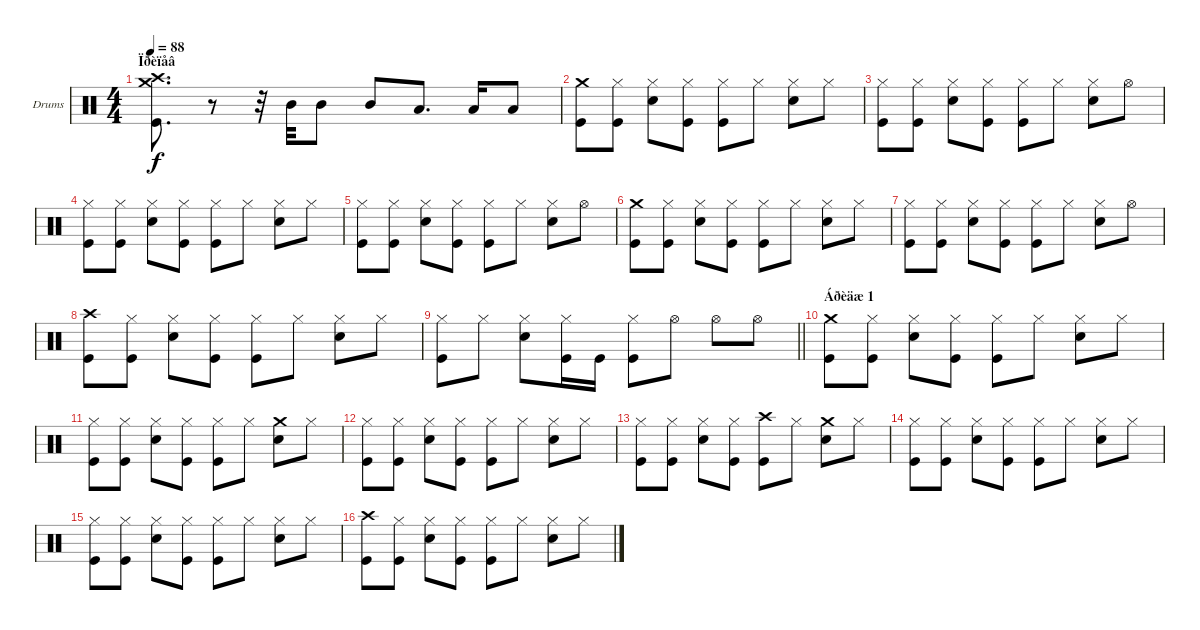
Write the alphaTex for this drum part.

\bracketExtendMode groupsimilarinstruments
\firstSystemTrackNameOrientation horizontal
\otherSystemsTrackNameOrientation horizontal
\track ("Drumkit" "Drums") {instrument percussion}
\staff {score}
\articulation defaults
\ts (4 4)
\section ("" "Ïðèïåâ")
\tempo 88
\clef neutral
\ks c
("Kick (hit)" "Crash high (hit)" "Crash medium (hit)").8{d dy f} r.8 r.32 "Mid Tom (hit)".32 "Mid Tom (hit)".8 "Mid Tom (hit)".8 "Low Tom (hit)".8{d} "Low Tom (hit)".16 "Low Tom (hit)".8 |
("Kick (hit)" "Crash medium (hit)").8 ("Kick (hit)" "Hi-Hat (closed)").8 ("Snare (hit) 2" "Hi-Hat (closed)").8 ("Kick (hit)" "Hi-Hat (closed)").8 ("Kick (hit)" "Hi-Hat (closed)").8 "Hi-Hat (closed)".8 ("Snare (hit) 2" "Hi-Hat (closed)").8 "Hi-Hat (closed)".8 |
("Kick (hit)" "Hi-Hat (closed)").8 ("Kick (hit)" "Hi-Hat (closed)").8 ("Snare (hit) 2" "Hi-Hat (closed)").8 ("Kick (hit)" "Hi-Hat (closed)").8 ("Kick (hit)" "Hi-Hat (closed)").8 "Hi-Hat (closed)".8 ("Snare (hit) 2" "Hi-Hat (closed)").8 "Hi-Hat (open)".8 |
("Kick (hit)" "Hi-Hat (closed)").8 ("Kick (hit)" "Hi-Hat (closed)").8 ("Snare (hit) 2" "Hi-Hat (closed)").8 ("Kick (hit)" "Hi-Hat (closed)").8 ("Kick (hit)" "Hi-Hat (closed)").8 "Hi-Hat (closed)".8 ("Snare (hit) 2" "Hi-Hat (closed)").8 "Hi-Hat (closed)".8 |
("Kick (hit)" "Hi-Hat (closed)").8 ("Kick (hit)" "Hi-Hat (closed)").8 ("Snare (hit) 2" "Hi-Hat (closed)").8 ("Kick (hit)" "Hi-Hat (closed)").8 ("Kick (hit)" "Hi-Hat (closed)").8 "Hi-Hat (closed)".8 ("Snare (hit) 2" "Hi-Hat (closed)").8 "Hi-Hat (open)".8 |
("Kick (hit)" "Crash medium (hit)").8 ("Kick (hit)" "Hi-Hat (closed)").8 ("Snare (hit) 2" "Hi-Hat (closed)").8 ("Kick (hit)" "Hi-Hat (closed)").8 ("Kick (hit)" "Hi-Hat (closed)").8 "Hi-Hat (closed)".8 ("Snare (hit) 2" "Hi-Hat (closed)").8 "Hi-Hat (closed)".8 |
("Kick (hit)" "Hi-Hat (closed)").8 ("Kick (hit)" "Hi-Hat (closed)").8 ("Snare (hit) 2" "Hi-Hat (closed)").8 ("Kick (hit)" "Hi-Hat (closed)").8 ("Kick (hit)" "Hi-Hat (closed)").8 "Hi-Hat (closed)".8 ("Snare (hit) 2" "Hi-Hat (closed)").8 "Hi-Hat (open)".8 |
("Kick (hit)" "Crash high (hit)").8 ("Kick (hit)" "Hi-Hat (closed)").8 ("Snare (hit) 2" "Hi-Hat (closed)").8 ("Kick (hit)" "Hi-Hat (closed)").8 ("Kick (hit)" "Hi-Hat (closed)").8 "Hi-Hat (closed)".8 ("Snare (hit) 2" "Hi-Hat (closed)").8 "Hi-Hat (closed)".8 |
\barLineRight lightlight
("Kick (hit)" "Hi-Hat (closed)").8 "Hi-Hat (closed)".8 ("Snare (hit) 2" "Hi-Hat (closed)").8 ("Kick (hit)" "Hi-Hat (closed)").16 "Kick (hit)".16 ("Kick (hit)" "Hi-Hat (closed)").8 "Hi-Hat (open)".8 "Hi-Hat (open)".8 "Hi-Hat (open)".8 |
\section ("" "Áðèäæ 1")
("Kick (hit)" "Crash medium (hit)").8 ("Kick (hit)" "Hi-Hat (closed)").8 ("Snare (hit) 2" "Hi-Hat (closed)").8 ("Kick (hit)" "Hi-Hat (closed)").8 ("Kick (hit)" "Hi-Hat (closed)").8 "Hi-Hat (closed)".8 ("Snare (hit) 2" "Hi-Hat (closed)").8 "Hi-Hat (closed)".8 |
("Kick (hit)" "Hi-Hat (closed)").8 ("Kick (hit)" "Hi-Hat (closed)").8 ("Snare (hit) 2" "Hi-Hat (closed)").8 ("Kick (hit)" "Hi-Hat (closed)").8 ("Kick (hit)" "Hi-Hat (closed)").8 "Hi-Hat (closed)".8 ("Snare (hit) 2" "Crash medium (hit)").8 "Hi-Hat (closed)".8 |
("Kick (hit)" "Hi-Hat (closed)").8 ("Kick (hit)" "Hi-Hat (closed)").8 ("Snare (hit) 2" "Hi-Hat (closed)").8 ("Kick (hit)" "Hi-Hat (closed)").8 ("Kick (hit)" "Hi-Hat (closed)").8 "Hi-Hat (closed)".8 ("Snare (hit) 2" "Hi-Hat (closed)").8 "Hi-Hat (closed)".8 |
("Kick (hit)" "Hi-Hat (closed)").8 ("Kick (hit)" "Hi-Hat (closed)").8 ("Snare (hit) 2" "Hi-Hat (closed)").8 ("Kick (hit)" "Hi-Hat (closed)").8 ("Kick (hit)" "Crash high (hit)").8 "Hi-Hat (closed)".8 ("Snare (hit) 2" "Crash medium (hit)").8 "Hi-Hat (closed)".8 |
("Kick (hit)" "Hi-Hat (closed)").8 ("Kick (hit)" "Hi-Hat (closed)").8 ("Snare (hit) 2" "Hi-Hat (closed)").8 ("Kick (hit)" "Hi-Hat (closed)").8 ("Kick (hit)" "Hi-Hat (closed)").8 "Hi-Hat (closed)".8 ("Snare (hit) 2" "Hi-Hat (closed)").8 "Hi-Hat (closed)".8 |
("Kick (hit)" "Hi-Hat (closed)").8 ("Kick (hit)" "Hi-Hat (closed)").8 ("Snare (hit) 2" "Hi-Hat (closed)").8 ("Kick (hit)" "Hi-Hat (closed)").8 ("Kick (hit)" "Hi-Hat (closed)").8 "Hi-Hat (closed)".8 ("Snare (hit) 2" "Hi-Hat (closed)").8 "Hi-Hat (closed)".8 |
("Kick (hit)" "Crash high (hit)").8 ("Kick (hit)" "Hi-Hat (closed)").8 ("Snare (hit) 2" "Hi-Hat (closed)").8 ("Kick (hit)" "Hi-Hat (closed)").8 ("Kick (hit)" "Hi-Hat (closed)").8 "Hi-Hat (closed)".8 ("Snare (hit) 2" "Hi-Hat (closed)").8 "Hi-Hat (closed)".8
